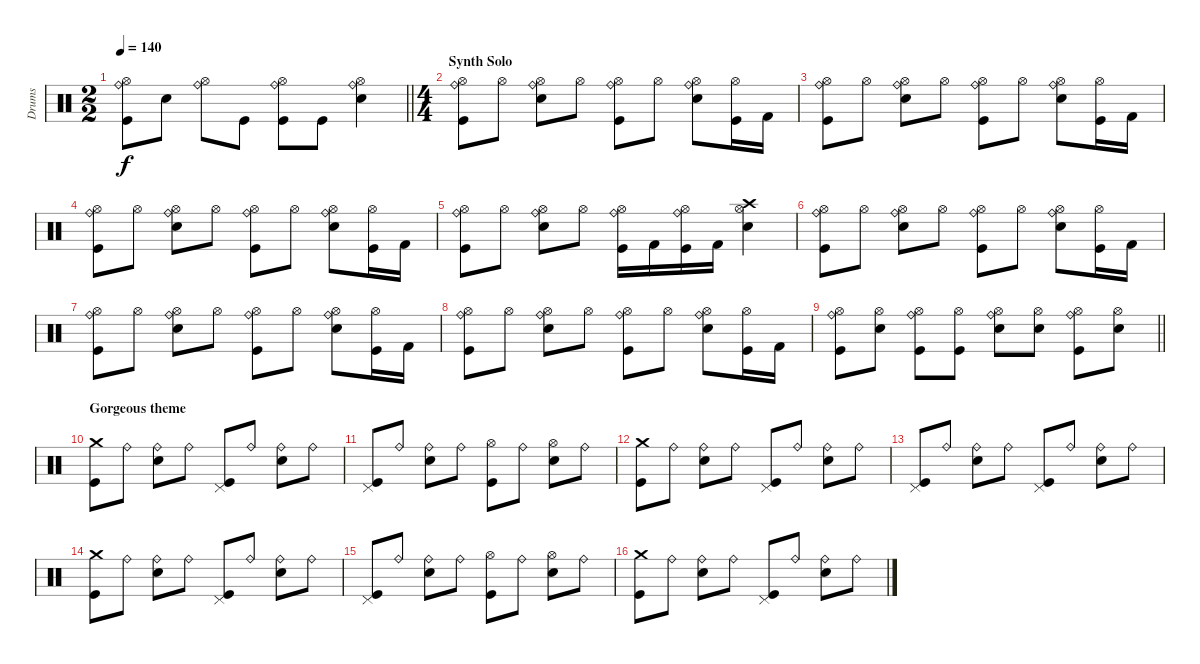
\track ("Drums" "Drums") {instrument percussion}
\staff {score}
\articulation defaults
\ts (2 2)
\tempo 140
\clef neutral
\barLineRight lightlight
\ks c
("Ride (bell)" "Hi-Hat (open)" "Kick (hit)").8{dy f} "Snare (hit) 2".8 ("Ride (bell)" "Hi-Hat (open)").8 "Kick (hit)".8 ("Ride (bell)" "Hi-Hat (open)" "Kick (hit)").8 "Kick (hit)".8 ("Ride (bell)" "Hi-Hat (open)" "Snare (hit) 2").4 |
\ts (4 4)
\section ("" "Synth Solo")
("Ride (bell)" "Hi-Hat (open)" "Kick (hit)").8 "Hi-Hat (open)".8 ("Ride (bell)" "Hi-Hat (open)" "Snare (hit) 2").8 "Hi-Hat (open)".8 ("Ride (bell)" "Hi-Hat (open)" "Kick (hit)").8 "Hi-Hat (open)".8 ("Ride (bell)" "Hi-Hat (open)" "Snare (hit) 2").8 ("Hi-Hat (open)" "Kick (hit)").16 "Kick (hit) 2".16 |
("Ride (bell)" "Hi-Hat (open)" "Kick (hit)").8 "Hi-Hat (open)".8 ("Ride (bell)" "Hi-Hat (open)" "Snare (hit) 2").8 "Hi-Hat (open)".8 ("Ride (bell)" "Hi-Hat (open)" "Kick (hit)").8 "Hi-Hat (open)".8 ("Ride (bell)" "Hi-Hat (open)" "Snare (hit) 2").8 ("Hi-Hat (open)" "Kick (hit)").16 "Kick (hit) 2".16 |
("Ride (bell)" "Hi-Hat (open)" "Kick (hit)").8 "Hi-Hat (open)".8 ("Ride (bell)" "Hi-Hat (open)" "Snare (hit) 2").8 "Hi-Hat (open)".8 ("Ride (bell)" "Hi-Hat (open)" "Kick (hit)").8 "Hi-Hat (open)".8 ("Ride (bell)" "Hi-Hat (open)" "Snare (hit) 2").8 ("Hi-Hat (open)" "Kick (hit)").16 "Kick (hit) 2".16 |
("Ride (bell)" "Hi-Hat (open)" "Kick (hit)").8 "Hi-Hat (open)".8 ("Ride (bell)" "Hi-Hat (open)" "Snare (hit) 2").8 "Hi-Hat (open)".8 ("Ride (bell)" "Hi-Hat (open)" "Kick (hit)").16 "Kick (hit) 2".16 ("Ride (bell)" "Hi-Hat (open)" "Kick (hit)").16 "Kick (hit) 2".16 ("Crash high (hit)" "Hi-Hat (open)" "Snare (hit) 2").4 |
("Ride (bell)" "Hi-Hat (open)" "Kick (hit)").8 "Hi-Hat (open)".8 ("Ride (bell)" "Hi-Hat (open)" "Snare (hit) 2").8 "Hi-Hat (open)".8 ("Ride (bell)" "Hi-Hat (open)" "Kick (hit)").8 "Hi-Hat (open)".8 ("Ride (bell)" "Hi-Hat (open)" "Snare (hit) 2").8 ("Hi-Hat (open)" "Kick (hit)").16 "Kick (hit) 2".16 |
("Ride (bell)" "Hi-Hat (open)" "Kick (hit)").8 "Hi-Hat (open)".8 ("Ride (bell)" "Hi-Hat (open)" "Snare (hit) 2").8 "Hi-Hat (open)".8 ("Ride (bell)" "Hi-Hat (open)" "Kick (hit)").8 "Hi-Hat (open)".8 ("Ride (bell)" "Hi-Hat (open)" "Snare (hit) 2").8 ("Hi-Hat (open)" "Kick (hit)").16 "Kick (hit) 2".16 |
("Ride (bell)" "Hi-Hat (open)" "Kick (hit)").8 "Hi-Hat (open)".8 ("Ride (bell)" "Hi-Hat (open)" "Snare (hit) 2").8 "Hi-Hat (open)".8 ("Ride (bell)" "Hi-Hat (open)" "Kick (hit)").8 "Hi-Hat (open)".8 ("Ride (bell)" "Hi-Hat (open)" "Snare (hit) 2").8 ("Hi-Hat (open)" "Kick (hit)").16 "Kick (hit) 2".16 |
\barLineRight lightlight
("Ride (bell)" "Hi-Hat (open)" "Kick (hit)").8 ("Hi-Hat (open)" "Snare (hit) 2").8 ("Ride (bell)" "Hi-Hat (open)" "Kick (hit)").8 ("Hi-Hat (open)" "Kick (hit)").8 ("Ride (bell)" "Hi-Hat (open)" "Snare (hit) 2").8 ("Hi-Hat (open)" "Snare (hit) 2").8 ("Ride (bell)" "Hi-Hat (open)" "Kick (hit)").8 ("Hi-Hat (open)" "Snare (hit) 2").8 |
\section ("" "Gorgeous theme")
("Crash medium (hit)" "Kick (hit)").8 "Ride (bell)".8 ("Ride (bell)" "Snare (hit) 2").8 "Ride (bell)".8 ("Pedal Hi-Hat (hit)" "Kick (hit)").8 "Ride (bell)".8 ("Ride (bell)" "Snare (hit) 2").8 "Ride (bell)".8 |
("Pedal Hi-Hat (hit)" "Kick (hit)").8 "Ride (bell)".8 ("Ride (bell)" "Snare (hit) 2").8 "Ride (bell)".8 ("Hi-Hat (open)" "Kick (hit)").8 "Ride (bell)".8 ("Hi-Hat (open)" "Snare (hit) 2").8 "Ride (bell)".8 |
("Crash medium (hit)" "Kick (hit)").8 "Ride (bell)".8 ("Ride (bell)" "Snare (hit) 2").8 "Ride (bell)".8 ("Pedal Hi-Hat (hit)" "Kick (hit)").8 "Ride (bell)".8 ("Ride (bell)" "Snare (hit) 2").8 "Ride (bell)".8 |
("Pedal Hi-Hat (hit)" "Kick (hit)").8 "Ride (bell)".8 ("Ride (bell)" "Snare (hit) 2").8 "Ride (bell)".8 ("Pedal Hi-Hat (hit)" "Kick (hit)").8 "Ride (bell)".8 ("Ride (bell)" "Snare (hit) 2").8 "Ride (bell)".8 |
("Crash medium (hit)" "Kick (hit)").8 "Ride (bell)".8 ("Ride (bell)" "Snare (hit) 2").8 "Ride (bell)".8 ("Pedal Hi-Hat (hit)" "Kick (hit)").8 "Ride (bell)".8 ("Ride (bell)" "Snare (hit) 2").8 "Ride (bell)".8 |
("Pedal Hi-Hat (hit)" "Kick (hit)").8 "Ride (bell)".8 ("Ride (bell)" "Snare (hit) 2").8 "Ride (bell)".8 ("Hi-Hat (open)" "Kick (hit)").8 "Ride (bell)".8 ("Hi-Hat (open)" "Snare (hit) 2").8 "Ride (bell)".8 |
("Crash medium (hit)" "Kick (hit)").8 "Ride (bell)".8 ("Ride (bell)" "Snare (hit) 2").8 "Ride (bell)".8 ("Pedal Hi-Hat (hit)" "Kick (hit)").8 "Ride (bell)".8 ("Ride (bell)" "Snare (hit) 2").8 "Ride (bell)".8
